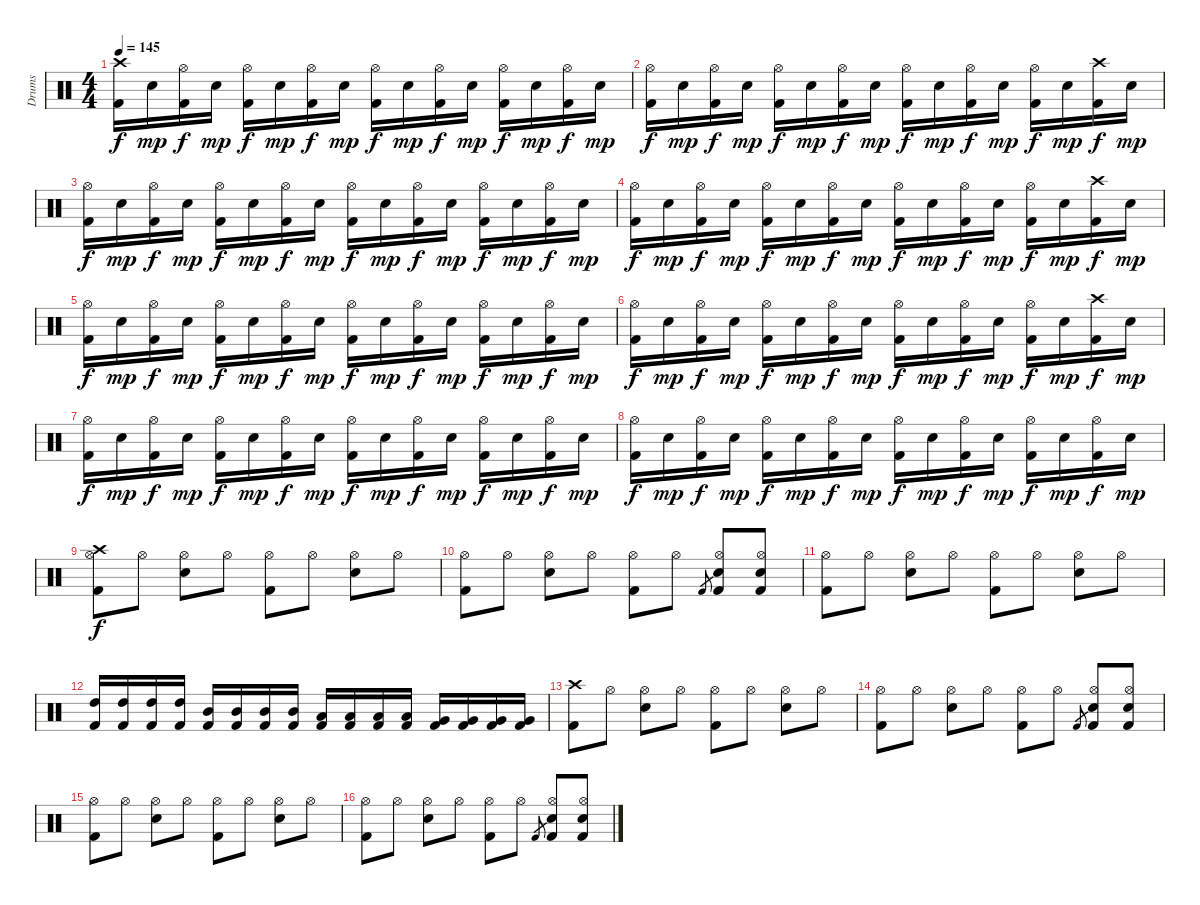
\track ("Drums" "Drums") {instrument percussion}
\staff {score}
\articulation defaults
\ts (4 4)
\tempo 145
\clef neutral
\ks c
("Crash high (hit)" "Kick (hit) 2").16{dy f} "Electric Snare (hit)".16{dy mp} ("Hi-Hat (open)" "Kick (hit) 2").16{dy f} "Electric Snare (hit)".16{dy mp} ("Hi-Hat (open)" "Kick (hit) 2").16{dy f} "Electric Snare (hit)".16{dy mp} ("Hi-Hat (open)" "Kick (hit) 2").16{dy f} "Electric Snare (hit)".16{dy mp} ("Hi-Hat (open)" "Kick (hit) 2").16{dy f} "Electric Snare (hit)".16{dy mp} ("Hi-Hat (open)" "Kick (hit) 2").16{dy f} "Electric Snare (hit)".16{dy mp} ("Hi-Hat (open)" "Kick (hit) 2").16{dy f} "Electric Snare (hit)".16{dy mp} ("Hi-Hat (open)" "Kick (hit) 2").16{dy f} "Electric Snare (hit)".16{dy mp} |
("Hi-Hat (open)" "Kick (hit) 2").16{dy f} "Electric Snare (hit)".16{dy mp} ("Hi-Hat (open)" "Kick (hit) 2").16{dy f} "Electric Snare (hit)".16{dy mp} ("Hi-Hat (open)" "Kick (hit) 2").16{dy f} "Electric Snare (hit)".16{dy mp} ("Hi-Hat (open)" "Kick (hit) 2").16{dy f} "Electric Snare (hit)".16{dy mp} ("Hi-Hat (open)" "Kick (hit) 2").16{dy f} "Electric Snare (hit)".16{dy mp} ("Hi-Hat (open)" "Kick (hit) 2").16{dy f} "Electric Snare (hit)".16{dy mp} ("Hi-Hat (open)" "Kick (hit) 2").16{dy f} "Electric Snare (hit)".16{dy mp} ("Crash high (hit)" "Kick (hit) 2").16{dy f} "Electric Snare (hit)".16{dy mp} |
("Hi-Hat (open)" "Kick (hit) 2").16{dy f} "Electric Snare (hit)".16{dy mp} ("Hi-Hat (open)" "Kick (hit) 2").16{dy f} "Electric Snare (hit)".16{dy mp} ("Hi-Hat (open)" "Kick (hit) 2").16{dy f} "Electric Snare (hit)".16{dy mp} ("Hi-Hat (open)" "Kick (hit) 2").16{dy f} "Electric Snare (hit)".16{dy mp} ("Hi-Hat (open)" "Kick (hit) 2").16{dy f} "Electric Snare (hit)".16{dy mp} ("Hi-Hat (open)" "Kick (hit) 2").16{dy f} "Electric Snare (hit)".16{dy mp} ("Hi-Hat (open)" "Kick (hit) 2").16{dy f} "Electric Snare (hit)".16{dy mp} ("Hi-Hat (open)" "Kick (hit) 2").16{dy f} "Electric Snare (hit)".16{dy mp} |
("Hi-Hat (open)" "Kick (hit) 2").16{dy f} "Electric Snare (hit)".16{dy mp} ("Hi-Hat (open)" "Kick (hit) 2").16{dy f} "Electric Snare (hit)".16{dy mp} ("Hi-Hat (open)" "Kick (hit) 2").16{dy f} "Electric Snare (hit)".16{dy mp} ("Hi-Hat (open)" "Kick (hit) 2").16{dy f} "Electric Snare (hit)".16{dy mp} ("Hi-Hat (open)" "Kick (hit) 2").16{dy f} "Electric Snare (hit)".16{dy mp} ("Hi-Hat (open)" "Kick (hit) 2").16{dy f} "Electric Snare (hit)".16{dy mp} ("Hi-Hat (open)" "Kick (hit) 2").16{dy f} "Electric Snare (hit)".16{dy mp} ("Crash high (hit)" "Kick (hit) 2").16{dy f} "Electric Snare (hit)".16{dy mp} |
("Hi-Hat (open)" "Kick (hit) 2").16{dy f} "Electric Snare (hit)".16{dy mp} ("Hi-Hat (open)" "Kick (hit) 2").16{dy f} "Electric Snare (hit)".16{dy mp} ("Hi-Hat (open)" "Kick (hit) 2").16{dy f} "Electric Snare (hit)".16{dy mp} ("Hi-Hat (open)" "Kick (hit) 2").16{dy f} "Electric Snare (hit)".16{dy mp} ("Hi-Hat (open)" "Kick (hit) 2").16{dy f} "Electric Snare (hit)".16{dy mp} ("Hi-Hat (open)" "Kick (hit) 2").16{dy f} "Electric Snare (hit)".16{dy mp} ("Hi-Hat (open)" "Kick (hit) 2").16{dy f} "Electric Snare (hit)".16{dy mp} ("Hi-Hat (open)" "Kick (hit) 2").16{dy f} "Electric Snare (hit)".16{dy mp} |
("Hi-Hat (open)" "Kick (hit) 2").16{dy f} "Electric Snare (hit)".16{dy mp} ("Hi-Hat (open)" "Kick (hit) 2").16{dy f} "Electric Snare (hit)".16{dy mp} ("Hi-Hat (open)" "Kick (hit) 2").16{dy f} "Electric Snare (hit)".16{dy mp} ("Hi-Hat (open)" "Kick (hit) 2").16{dy f} "Electric Snare (hit)".16{dy mp} ("Hi-Hat (open)" "Kick (hit) 2").16{dy f} "Electric Snare (hit)".16{dy mp} ("Hi-Hat (open)" "Kick (hit) 2").16{dy f} "Electric Snare (hit)".16{dy mp} ("Hi-Hat (open)" "Kick (hit) 2").16{dy f} "Electric Snare (hit)".16{dy mp} ("Crash high (hit)" "Kick (hit) 2").16{dy f} "Electric Snare (hit)".16{dy mp} |
("Hi-Hat (open)" "Kick (hit) 2").16{dy f} "Electric Snare (hit)".16{dy mp} ("Hi-Hat (open)" "Kick (hit) 2").16{dy f} "Electric Snare (hit)".16{dy mp} ("Hi-Hat (open)" "Kick (hit) 2").16{dy f} "Electric Snare (hit)".16{dy mp} ("Hi-Hat (open)" "Kick (hit) 2").16{dy f} "Electric Snare (hit)".16{dy mp} ("Hi-Hat (open)" "Kick (hit) 2").16{dy f} "Electric Snare (hit)".16{dy mp} ("Hi-Hat (open)" "Kick (hit) 2").16{dy f} "Electric Snare (hit)".16{dy mp} ("Hi-Hat (open)" "Kick (hit) 2").16{dy f} "Electric Snare (hit)".16{dy mp} ("Hi-Hat (open)" "Kick (hit) 2").16{dy f} "Electric Snare (hit)".16{dy mp} |
("Hi-Hat (open)" "Kick (hit) 2").16{dy f} "Electric Snare (hit)".16{dy mp} ("Hi-Hat (open)" "Kick (hit) 2").16{dy f} "Electric Snare (hit)".16{dy mp} ("Hi-Hat (open)" "Kick (hit) 2").16{dy f} "Electric Snare (hit)".16{dy mp} ("Hi-Hat (open)" "Kick (hit) 2").16{dy f} "Electric Snare (hit)".16{dy mp} ("Hi-Hat (open)" "Kick (hit) 2").16{dy f} "Electric Snare (hit)".16{dy mp} ("Hi-Hat (open)" "Kick (hit) 2").16{dy f} "Electric Snare (hit)".16{dy mp} ("Hi-Hat (open)" "Kick (hit) 2").16{dy f} "Electric Snare (hit)".16{dy mp} ("Hi-Hat (open)" "Kick (hit) 2").16{dy f} "Electric Snare (hit)".16{dy mp} |
("Crash high (hit)" "Hi-Hat (open)" "Kick (hit) 2").8{dy f} "Hi-Hat (open)".8 ("Hi-Hat (open)" "Snare (hit) 2").8 "Hi-Hat (open)".8 ("Hi-Hat (open)" "Kick (hit) 2").8 "Hi-Hat (open)".8 ("Hi-Hat (open)" "Snare (hit) 2").8 "Hi-Hat (open)".8 |
("Hi-Hat (open)" "Kick (hit) 2").8 "Hi-Hat (open)".8 ("Hi-Hat (open)" "Snare (hit) 2").8 "Hi-Hat (open)".8 ("Hi-Hat (open)" "Kick (hit) 2").8 "Hi-Hat (open)".8 "Kick (hit) 2".8{gr} ("Hi-Hat (open)" "Snare (hit) 2" "Kick (hit) 2").8 ("Hi-Hat (open)" "Snare (hit) 2" "Kick (hit) 2").8 |
("Hi-Hat (open)" "Kick (hit) 2").8 "Hi-Hat (open)".8 ("Hi-Hat (open)" "Snare (hit) 2").8 "Hi-Hat (open)".8 ("Hi-Hat (open)" "Kick (hit) 2").8 "Hi-Hat (open)".8 ("Hi-Hat (open)" "Snare (hit) 2").8 "Hi-Hat (open)".8 |
("High Tom (hit)" "Kick (hit) 2").16 ("High Tom (hit)" "Kick (hit) 2").16 ("High Tom (hit)" "Kick (hit) 2").16 ("High Tom (hit)" "Kick (hit) 2").16 ("Mid Tom (hit)" "Kick (hit) 2").16 ("Mid Tom (hit)" "Kick (hit) 2").16 ("Mid Tom (hit)" "Kick (hit) 2").16 ("Mid Tom (hit)" "Kick (hit) 2").16 ("Low Tom (hit)" "Kick (hit) 2").16 ("Low Tom (hit)" "Kick (hit) 2").16 ("Low Tom (hit)" "Kick (hit) 2").16 ("Low Tom (hit)" "Kick (hit) 2").16 ("Very Low Tom (hit)" "Kick (hit) 2").16 ("Very Low Tom (hit)" "Kick (hit) 2").16 ("Very Low Tom (hit)" "Kick (hit) 2").16 ("Very Low Tom (hit)" "Kick (hit) 2").16 |
("Crash high (hit)" "Kick (hit) 2").8 "Hi-Hat (open)".8 ("Hi-Hat (open)" "Snare (hit) 2").8 "Hi-Hat (open)".8 ("Hi-Hat (open)" "Kick (hit) 2").8 "Hi-Hat (open)".8 ("Hi-Hat (open)" "Snare (hit) 2").8 "Hi-Hat (open)".8 |
("Hi-Hat (open)" "Kick (hit) 2").8 "Hi-Hat (open)".8 ("Hi-Hat (open)" "Snare (hit) 2").8 "Hi-Hat (open)".8 ("Hi-Hat (open)" "Kick (hit) 2").8 "Hi-Hat (open)".8 "Kick (hit) 2".8{gr} ("Hi-Hat (open)" "Snare (hit) 2" "Kick (hit) 2").8 ("Hi-Hat (open)" "Snare (hit) 2" "Kick (hit) 2").8 |
("Hi-Hat (open)" "Kick (hit) 2").8 "Hi-Hat (open)".8 ("Hi-Hat (open)" "Snare (hit) 2").8 "Hi-Hat (open)".8 ("Hi-Hat (open)" "Kick (hit) 2").8 "Hi-Hat (open)".8 ("Hi-Hat (open)" "Snare (hit) 2").8 "Hi-Hat (open)".8 |
("Hi-Hat (open)" "Kick (hit) 2").8 "Hi-Hat (open)".8 ("Hi-Hat (open)" "Snare (hit) 2").8 "Hi-Hat (open)".8 ("Hi-Hat (open)" "Kick (hit) 2").8 "Hi-Hat (open)".8 "Kick (hit) 2".8{gr} ("Hi-Hat (open)" "Snare (hit) 2" "Kick (hit) 2").8 ("Hi-Hat (open)" "Snare (hit) 2" "Kick (hit) 2").8
